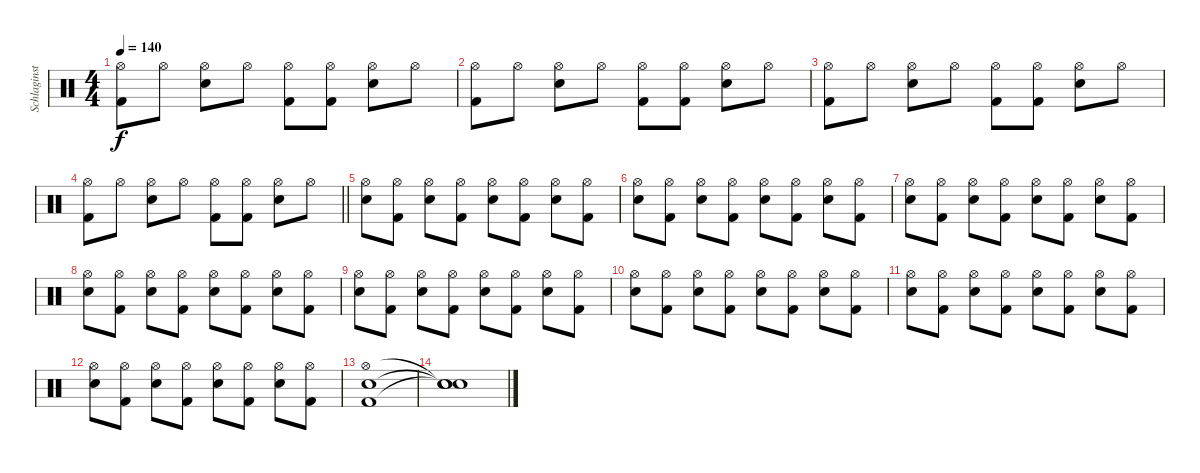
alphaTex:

\track ("Schlaginstrumente - Auswahl" "Schlaginst") {instrument percussion}
\staff {score}
\articulation defaults
\ts (4 4)
\tempo 140
\clef neutral
\ks c
("Hi-Hat (open)" "Kick (hit) 2").8{dy f} "Hi-Hat (open)".8 ("Hi-Hat (open)" "Snare (hit) 2").8 "Hi-Hat (open)".8 ("Hi-Hat (open)" "Kick (hit) 2").8 ("Hi-Hat (open)" "Kick (hit) 2").8 ("Hi-Hat (open)" "Snare (hit) 2").8 "Hi-Hat (open)".8 |
("Hi-Hat (open)" "Kick (hit) 2").8 "Hi-Hat (open)".8 ("Hi-Hat (open)" "Snare (hit) 2").8 "Hi-Hat (open)".8 ("Hi-Hat (open)" "Kick (hit) 2").8 ("Hi-Hat (open)" "Kick (hit) 2").8 ("Hi-Hat (open)" "Snare (hit) 2").8 "Hi-Hat (open)".8 |
("Hi-Hat (open)" "Kick (hit) 2").8 "Hi-Hat (open)".8 ("Hi-Hat (open)" "Snare (hit) 2").8 "Hi-Hat (open)".8 ("Hi-Hat (open)" "Kick (hit) 2").8 ("Hi-Hat (open)" "Kick (hit) 2").8 ("Hi-Hat (open)" "Snare (hit) 2").8 "Hi-Hat (open)".8 |
\barLineRight lightlight
("Hi-Hat (open)" "Kick (hit) 2").8 "Hi-Hat (open)".8 ("Hi-Hat (open)" "Snare (hit) 2").8 "Hi-Hat (open)".8 ("Hi-Hat (open)" "Kick (hit) 2").8 ("Hi-Hat (open)" "Kick (hit) 2").8 ("Hi-Hat (open)" "Snare (hit) 2").8 "Hi-Hat (open)".8 |
("Hi-Hat (open)" "Snare (hit) 2").8 ("Hi-Hat (open)" "Kick (hit) 2").8 ("Hi-Hat (open)" "Snare (hit) 2").8 ("Hi-Hat (open)" "Kick (hit) 2").8 ("Hi-Hat (open)" "Snare (hit) 2").8 ("Hi-Hat (open)" "Kick (hit) 2").8 ("Hi-Hat (open)" "Snare (hit) 2").8 ("Hi-Hat (open)" "Kick (hit) 2").8 |
("Hi-Hat (open)" "Snare (hit) 2").8 ("Hi-Hat (open)" "Kick (hit) 2").8 ("Hi-Hat (open)" "Snare (hit) 2").8 ("Hi-Hat (open)" "Kick (hit) 2").8 ("Hi-Hat (open)" "Snare (hit) 2").8 ("Hi-Hat (open)" "Kick (hit) 2").8 ("Hi-Hat (open)" "Snare (hit) 2").8 ("Hi-Hat (open)" "Kick (hit) 2").8 |
("Hi-Hat (open)" "Snare (hit) 2").8 ("Hi-Hat (open)" "Kick (hit) 2").8 ("Hi-Hat (open)" "Snare (hit) 2").8 ("Hi-Hat (open)" "Kick (hit) 2").8 ("Hi-Hat (open)" "Snare (hit) 2").8 ("Hi-Hat (open)" "Kick (hit) 2").8 ("Hi-Hat (open)" "Snare (hit) 2").8 ("Hi-Hat (open)" "Kick (hit) 2").8 |
("Hi-Hat (open)" "Snare (hit) 2").8 ("Hi-Hat (open)" "Kick (hit) 2").8 ("Hi-Hat (open)" "Snare (hit) 2").8 ("Hi-Hat (open)" "Kick (hit) 2").8 ("Hi-Hat (open)" "Snare (hit) 2").8 ("Hi-Hat (open)" "Kick (hit) 2").8 ("Hi-Hat (open)" "Snare (hit) 2").8 ("Hi-Hat (open)" "Kick (hit) 2").8 |
("Hi-Hat (open)" "Snare (hit) 2").8 ("Hi-Hat (open)" "Kick (hit) 2").8 ("Hi-Hat (open)" "Snare (hit) 2").8 ("Hi-Hat (open)" "Kick (hit) 2").8 ("Hi-Hat (open)" "Snare (hit) 2").8 ("Hi-Hat (open)" "Kick (hit) 2").8 ("Hi-Hat (open)" "Snare (hit) 2").8 ("Hi-Hat (open)" "Kick (hit) 2").8 |
("Hi-Hat (open)" "Snare (hit) 2").8 ("Hi-Hat (open)" "Kick (hit) 2").8 ("Hi-Hat (open)" "Snare (hit) 2").8 ("Hi-Hat (open)" "Kick (hit) 2").8 ("Hi-Hat (open)" "Snare (hit) 2").8 ("Hi-Hat (open)" "Kick (hit) 2").8 ("Hi-Hat (open)" "Snare (hit) 2").8 ("Hi-Hat (open)" "Kick (hit) 2").8 |
("Hi-Hat (open)" "Snare (hit) 2").8 ("Hi-Hat (open)" "Kick (hit) 2").8 ("Hi-Hat (open)" "Snare (hit) 2").8 ("Hi-Hat (open)" "Kick (hit) 2").8 ("Hi-Hat (open)" "Snare (hit) 2").8 ("Hi-Hat (open)" "Kick (hit) 2").8 ("Hi-Hat (open)" "Snare (hit) 2").8 ("Hi-Hat (open)" "Kick (hit) 2").8 |
("Hi-Hat (open)" "Snare (hit) 2").8 ("Hi-Hat (open)" "Kick (hit) 2").8 ("Hi-Hat (open)" "Snare (hit) 2").8 ("Hi-Hat (open)" "Kick (hit) 2").8 ("Hi-Hat (open)" "Snare (hit) 2").8 ("Hi-Hat (open)" "Kick (hit) 2").8 ("Hi-Hat (open)" "Snare (hit) 2").8 ("Hi-Hat (open)" "Kick (hit) 2").8 |
("Hi-Hat (open)" "Kick (hit) 2" "Snare (hit) 2").1 |
("Snare (hit)"{t} "Snare (hit)"{t} "Snare (hit)"{t}).1
